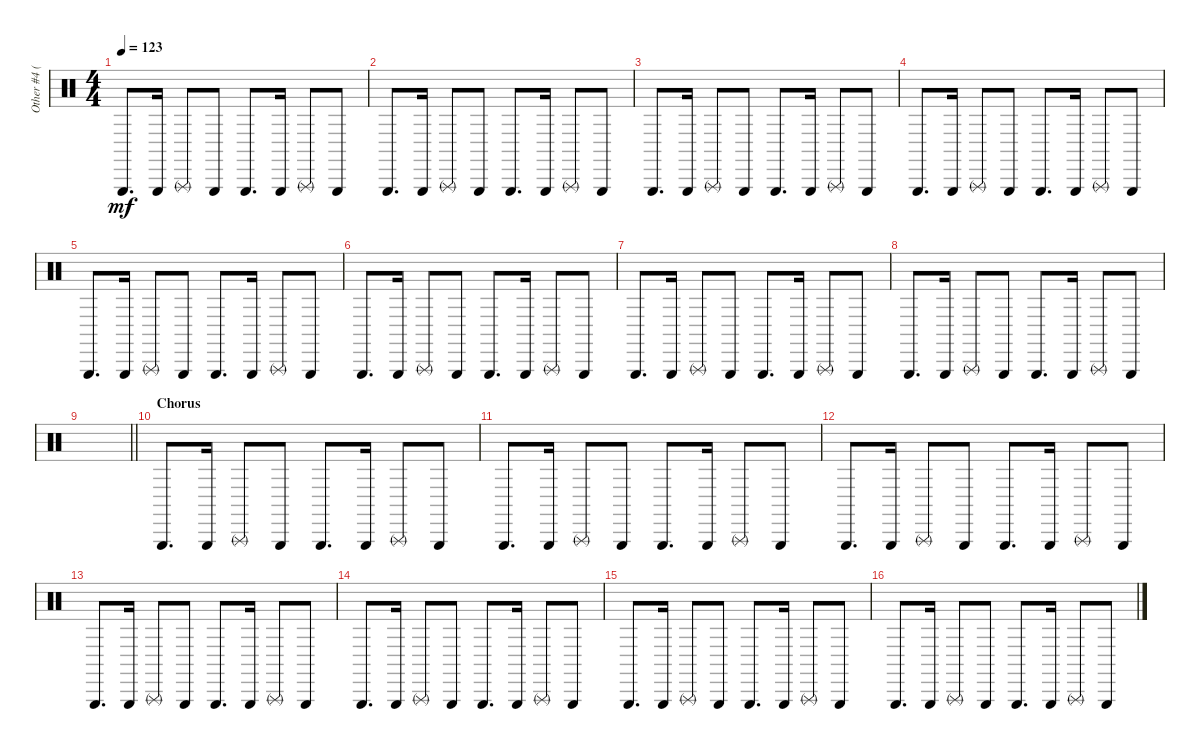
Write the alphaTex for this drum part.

\track ("Other #4 (Triangle)" "Other #4 (") {instrument percussion}
\staff {score}
\articulation defaults
\ts (4 4)
\tempo 123
\clef neutral
\ks c "Triangle (hit)".8{d dy mf} "Triangle (hit)".16 "Triangle (rnute)".8 "Triangle (hit)".8 "Triangle (hit)".8{d} "Triangle (hit)".16 "Triangle (rnute)".8 "Triangle (hit)".8
|
"Triangle (hit)".8{d} "Triangle (hit)".16 "Triangle (rnute)".8 "Triangle (hit)".8 "Triangle (hit)".8{d} "Triangle (hit)".16 "Triangle (rnute)".8 "Triangle (hit)".8 |
"Triangle (hit)".8{d} "Triangle (hit)".16 "Triangle (rnute)".8 "Triangle (hit)".8 "Triangle (hit)".8{d} "Triangle (hit)".16 "Triangle (rnute)".8 "Triangle (hit)".8 |
"Triangle (hit)".8{d} "Triangle (hit)".16 "Triangle (rnute)".8 "Triangle (hit)".8 "Triangle (hit)".8{d} "Triangle (hit)".16 "Triangle (rnute)".8 "Triangle (hit)".8 |
"Triangle (hit)".8{d} "Triangle (hit)".16 "Triangle (rnute)".8 "Triangle (hit)".8 "Triangle (hit)".8{d} "Triangle (hit)".16 "Triangle (rnute)".8 "Triangle (hit)".8 |
"Triangle (hit)".8{d} "Triangle (hit)".16 "Triangle (rnute)".8 "Triangle (hit)".8 "Triangle (hit)".8{d} "Triangle (hit)".16 "Triangle (rnute)".8 "Triangle (hit)".8 |
"Triangle (hit)".8{d} "Triangle (hit)".16 "Triangle (rnute)".8 "Triangle (hit)".8 "Triangle (hit)".8{d} "Triangle (hit)".16 "Triangle (rnute)".8 "Triangle (hit)".8 |
"Triangle (hit)".8{d} "Triangle (hit)".16 "Triangle (rnute)".8 "Triangle (hit)".8 "Triangle (hit)".8{d} "Triangle (hit)".16 "Triangle (rnute)".8 "Triangle (hit)".8 |
\barLineRight lightlight
|
\section ("" "Chorus")
"Triangle (hit)".8{d} "Triangle (hit)".16 "Triangle (rnute)".8 "Triangle (hit)".8 "Triangle (hit)".8{d} "Triangle (hit)".16 "Triangle (rnute)".8 "Triangle (hit)".8 |
"Triangle (hit)".8{d} "Triangle (hit)".16 "Triangle (rnute)".8 "Triangle (hit)".8 "Triangle (hit)".8{d} "Triangle (hit)".16 "Triangle (rnute)".8 "Triangle (hit)".8 |
"Triangle (hit)".8{d} "Triangle (hit)".16 "Triangle (rnute)".8 "Triangle (hit)".8 "Triangle (hit)".8{d} "Triangle (hit)".16 "Triangle (rnute)".8 "Triangle (hit)".8 |
"Triangle (hit)".8{d} "Triangle (hit)".16 "Triangle (rnute)".8 "Triangle (hit)".8 "Triangle (hit)".8{d} "Triangle (hit)".16 "Triangle (rnute)".8 "Triangle (hit)".8 |
"Triangle (hit)".8{d} "Triangle (hit)".16 "Triangle (rnute)".8 "Triangle (hit)".8 "Triangle (hit)".8{d} "Triangle (hit)".16 "Triangle (rnute)".8 "Triangle (hit)".8 |
"Triangle (hit)".8{d} "Triangle (hit)".16 "Triangle (rnute)".8 "Triangle (hit)".8 "Triangle (hit)".8{d} "Triangle (hit)".16 "Triangle (rnute)".8 "Triangle (hit)".8 |
"Triangle (hit)".8{d} "Triangle (hit)".16 "Triangle (rnute)".8 "Triangle (hit)".8 "Triangle (hit)".8{d} "Triangle (hit)".16 "Triangle (rnute)".8 "Triangle (hit)".8
